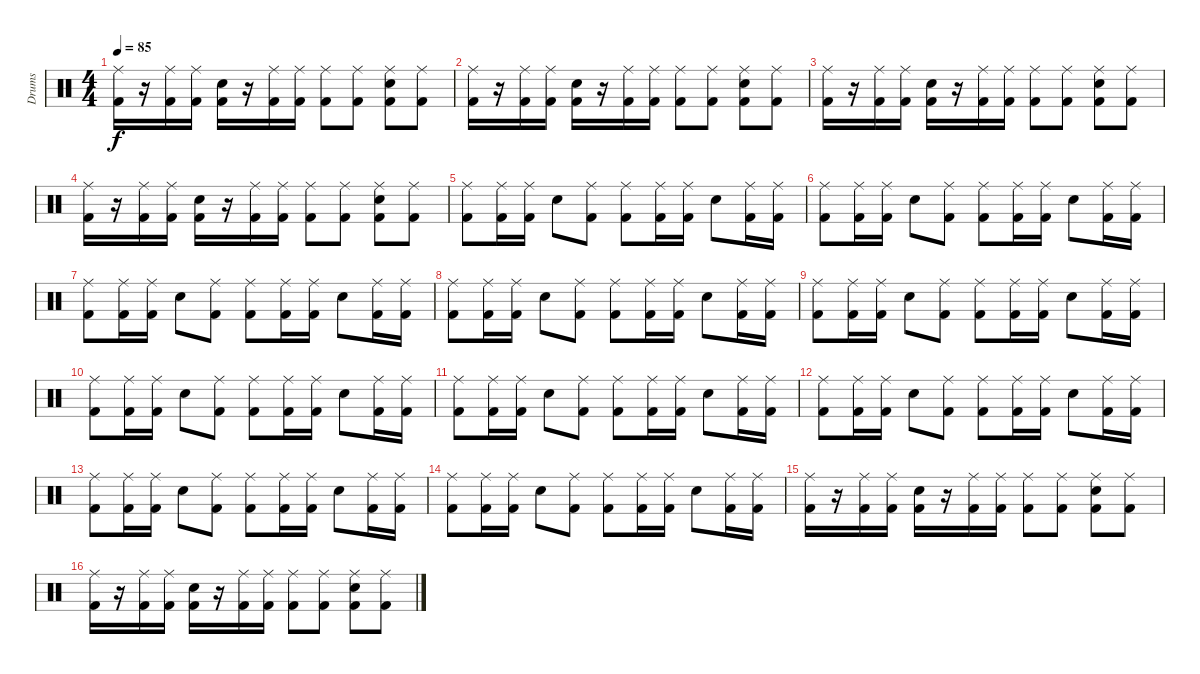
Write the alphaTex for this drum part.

\track ("Drums" "Drums") {instrument percussion}
\staff {score}
\articulation defaults
\ts (4 4)
\tempo 85
\clef neutral
\ks c
("Ride (middle)" "Kick (hit) 2").16{dy f} r.16 ("Ride (middle)" "Kick (hit) 2").16 ("Ride (middle)" "Kick (hit) 2").16 ("Snare (hit) 2" "Kick (hit) 2").16 r.16 ("Ride (middle)" "Kick (hit) 2").16 ("Ride (middle)" "Kick (hit) 2").16 ("Ride (middle)" "Kick (hit) 2").8 ("Ride (middle)" "Kick (hit) 2").8 ("Ride (middle)" "Snare (hit) 2" "Kick (hit) 2").8 ("Ride (middle)" "Kick (hit) 2").8 |
("Ride (middle)" "Kick (hit) 2").16 r.16 ("Ride (middle)" "Kick (hit) 2").16 ("Ride (middle)" "Kick (hit) 2").16 ("Snare (hit) 2" "Kick (hit) 2").16 r.16 ("Ride (middle)" "Kick (hit) 2").16 ("Ride (middle)" "Kick (hit) 2").16 ("Ride (middle)" "Kick (hit) 2").8 ("Ride (middle)" "Kick (hit) 2").8 ("Ride (middle)" "Snare (hit) 2" "Kick (hit) 2").8 ("Ride (middle)" "Kick (hit) 2").8 |
("Ride (middle)" "Kick (hit) 2").16 r.16 ("Ride (middle)" "Kick (hit) 2").16 ("Ride (middle)" "Kick (hit) 2").16 ("Snare (hit) 2" "Kick (hit) 2").16 r.16 ("Ride (middle)" "Kick (hit) 2").16 ("Ride (middle)" "Kick (hit) 2").16 ("Ride (middle)" "Kick (hit) 2").8 ("Ride (middle)" "Kick (hit) 2").8 ("Ride (middle)" "Snare (hit) 2" "Kick (hit) 2").8 ("Ride (middle)" "Kick (hit) 2").8 |
("Ride (middle)" "Kick (hit) 2").16 r.16 ("Ride (middle)" "Kick (hit) 2").16 ("Ride (middle)" "Kick (hit) 2").16 ("Snare (hit) 2" "Kick (hit) 2").16 r.16 ("Ride (middle)" "Kick (hit) 2").16 ("Ride (middle)" "Kick (hit) 2").16 ("Ride (middle)" "Kick (hit) 2").8 ("Ride (middle)" "Kick (hit) 2").8 ("Ride (middle)" "Snare (hit) 2" "Kick (hit) 2").8 ("Ride (middle)" "Kick (hit) 2").8 |
("Ride (middle)" "Kick (hit) 2").8 ("Ride (middle)" "Kick (hit) 2").16 ("Ride (middle)" "Kick (hit) 2").16 "Snare (hit) 2".8 ("Ride (middle)" "Kick (hit) 2").8 ("Ride (middle)" "Kick (hit) 2").8 ("Ride (middle)" "Kick (hit) 2").16 ("Ride (middle)" "Kick (hit) 2").16 "Snare (hit) 2".8 ("Ride (middle)" "Kick (hit) 2").16 ("Ride (middle)" "Kick (hit) 2").16 |
("Ride (middle)" "Kick (hit) 2").8 ("Ride (middle)" "Kick (hit) 2").16 ("Ride (middle)" "Kick (hit) 2").16 "Snare (hit) 2".8 ("Ride (middle)" "Kick (hit) 2").8 ("Ride (middle)" "Kick (hit) 2").8 ("Ride (middle)" "Kick (hit) 2").16 ("Ride (middle)" "Kick (hit) 2").16 "Snare (hit) 2".8 ("Ride (middle)" "Kick (hit) 2").16 ("Ride (middle)" "Kick (hit) 2").16 |
("Ride (middle)" "Kick (hit) 2").8 ("Ride (middle)" "Kick (hit) 2").16 ("Ride (middle)" "Kick (hit) 2").16 "Snare (hit) 2".8 ("Ride (middle)" "Kick (hit) 2").8 ("Ride (middle)" "Kick (hit) 2").8 ("Ride (middle)" "Kick (hit) 2").16 ("Ride (middle)" "Kick (hit) 2").16 "Snare (hit) 2".8 ("Ride (middle)" "Kick (hit) 2").16 ("Ride (middle)" "Kick (hit) 2").16 |
("Ride (middle)" "Kick (hit) 2").8 ("Ride (middle)" "Kick (hit) 2").16 ("Ride (middle)" "Kick (hit) 2").16 "Snare (hit) 2".8 ("Ride (middle)" "Kick (hit) 2").8 ("Ride (middle)" "Kick (hit) 2").8 ("Ride (middle)" "Kick (hit) 2").16 ("Ride (middle)" "Kick (hit) 2").16 "Snare (hit) 2".8 ("Ride (middle)" "Kick (hit) 2").16 ("Ride (middle)" "Kick (hit) 2").16 |
("Ride (middle)" "Kick (hit) 2").8 ("Ride (middle)" "Kick (hit) 2").16 ("Ride (middle)" "Kick (hit) 2").16 "Snare (hit) 2".8 ("Ride (middle)" "Kick (hit) 2").8 ("Ride (middle)" "Kick (hit) 2").8 ("Ride (middle)" "Kick (hit) 2").16 ("Ride (middle)" "Kick (hit) 2").16 "Snare (hit) 2".8 ("Ride (middle)" "Kick (hit) 2").16 ("Ride (middle)" "Kick (hit) 2").16 |
("Ride (middle)" "Kick (hit) 2").8 ("Ride (middle)" "Kick (hit) 2").16 ("Ride (middle)" "Kick (hit) 2").16 "Snare (hit) 2".8 ("Ride (middle)" "Kick (hit) 2").8 ("Ride (middle)" "Kick (hit) 2").8 ("Ride (middle)" "Kick (hit) 2").16 ("Ride (middle)" "Kick (hit) 2").16 "Snare (hit) 2".8 ("Ride (middle)" "Kick (hit) 2").16 ("Ride (middle)" "Kick (hit) 2").16 |
("Ride (middle)" "Kick (hit) 2").8 ("Ride (middle)" "Kick (hit) 2").16 ("Ride (middle)" "Kick (hit) 2").16 "Snare (hit) 2".8 ("Ride (middle)" "Kick (hit) 2").8 ("Ride (middle)" "Kick (hit) 2").8 ("Ride (middle)" "Kick (hit) 2").16 ("Ride (middle)" "Kick (hit) 2").16 "Snare (hit) 2".8 ("Ride (middle)" "Kick (hit) 2").16 ("Ride (middle)" "Kick (hit) 2").16 |
("Ride (middle)" "Kick (hit) 2").8 ("Ride (middle)" "Kick (hit) 2").16 ("Ride (middle)" "Kick (hit) 2").16 "Snare (hit) 2".8 ("Ride (middle)" "Kick (hit) 2").8 ("Ride (middle)" "Kick (hit) 2").8 ("Ride (middle)" "Kick (hit) 2").16 ("Ride (middle)" "Kick (hit) 2").16 "Snare (hit) 2".8 ("Ride (middle)" "Kick (hit) 2").16 ("Ride (middle)" "Kick (hit) 2").16 |
("Ride (middle)" "Kick (hit) 2").8 ("Ride (middle)" "Kick (hit) 2").16 ("Ride (middle)" "Kick (hit) 2").16 "Snare (hit) 2".8 ("Ride (middle)" "Kick (hit) 2").8 ("Ride (middle)" "Kick (hit) 2").8 ("Ride (middle)" "Kick (hit) 2").16 ("Ride (middle)" "Kick (hit) 2").16 "Snare (hit) 2".8 ("Ride (middle)" "Kick (hit) 2").16 ("Ride (middle)" "Kick (hit) 2").16 |
("Ride (middle)" "Kick (hit) 2").8 ("Ride (middle)" "Kick (hit) 2").16 ("Ride (middle)" "Kick (hit) 2").16 "Snare (hit) 2".8 ("Ride (middle)" "Kick (hit) 2").8 ("Ride (middle)" "Kick (hit) 2").8 ("Ride (middle)" "Kick (hit) 2").16 ("Ride (middle)" "Kick (hit) 2").16 "Snare (hit) 2".8 ("Ride (middle)" "Kick (hit) 2").16 ("Ride (middle)" "Kick (hit) 2").16 |
("Ride (middle)" "Kick (hit) 2").16 r.16 ("Ride (middle)" "Kick (hit) 2").16 ("Ride (middle)" "Kick (hit) 2").16 ("Snare (hit) 2" "Kick (hit) 2").16 r.16 ("Ride (middle)" "Kick (hit) 2").16 ("Ride (middle)" "Kick (hit) 2").16 ("Ride (middle)" "Kick (hit) 2").8 ("Ride (middle)" "Kick (hit) 2").8 ("Ride (middle)" "Snare (hit) 2" "Kick (hit) 2").8 ("Ride (middle)" "Kick (hit) 2").8 |
("Ride (middle)" "Kick (hit) 2").16 r.16 ("Ride (middle)" "Kick (hit) 2").16 ("Ride (middle)" "Kick (hit) 2").16 ("Snare (hit) 2" "Kick (hit) 2").16 r.16 ("Ride (middle)" "Kick (hit) 2").16 ("Ride (middle)" "Kick (hit) 2").16 ("Ride (middle)" "Kick (hit) 2").8 ("Ride (middle)" "Kick (hit) 2").8 ("Ride (middle)" "Snare (hit) 2" "Kick (hit) 2").8 ("Ride (middle)" "Kick (hit) 2").8
